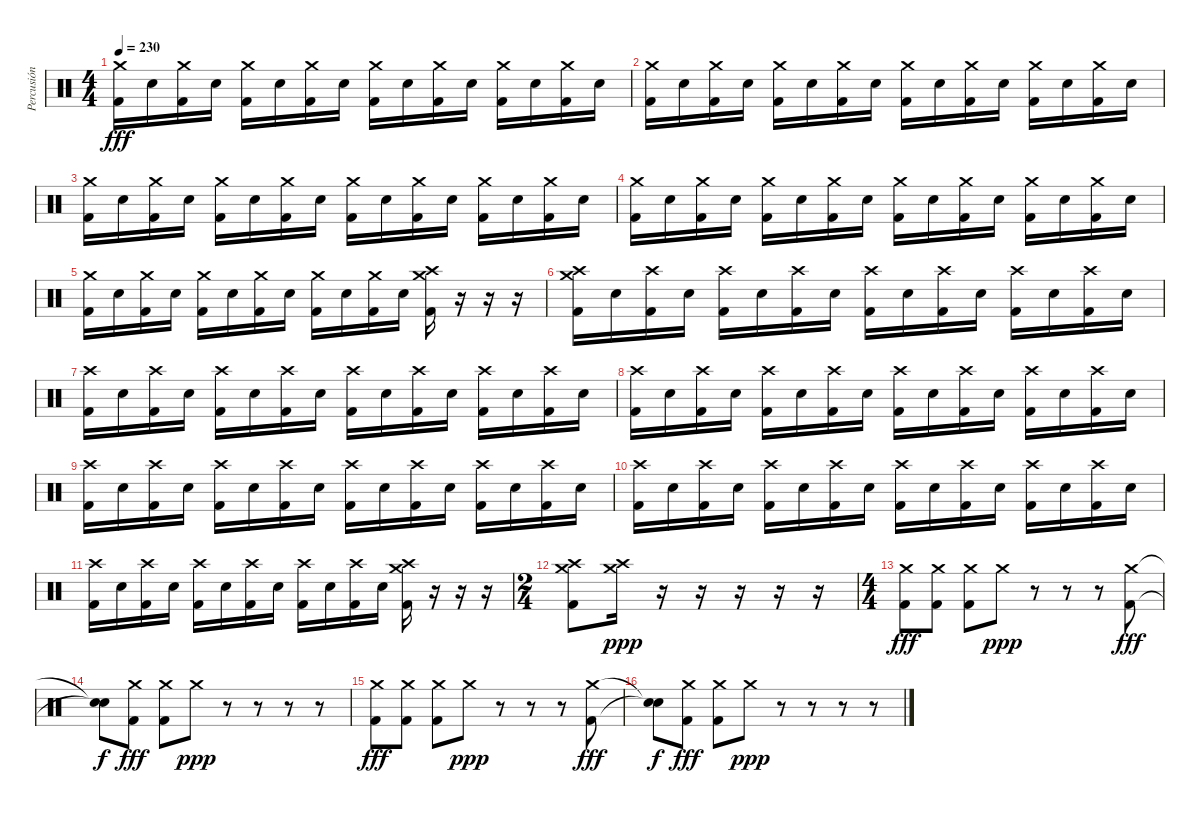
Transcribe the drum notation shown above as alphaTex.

\track ("Percusión" "Percusión") {instrument percussion}
\staff {score}
\articulation defaults
\ts (4 4)
\tempo 230
\clef neutral
\ks c
("Crash medium (hit)" "Kick (hit) 2").16{dy fff} "Electric Snare (hit)".16 ("Crash medium (hit)" "Kick (hit) 2").16 "Electric Snare (hit)".16 ("Crash medium (hit)" "Kick (hit) 2").16 "Electric Snare (hit)".16 ("Crash medium (hit)" "Kick (hit) 2").16 "Electric Snare (hit)".16 ("Crash medium (hit)" "Kick (hit) 2").16 "Electric Snare (hit)".16 ("Crash medium (hit)" "Kick (hit) 2").16 "Electric Snare (hit)".16 ("Crash medium (hit)" "Kick (hit) 2").16 "Electric Snare (hit)".16 ("Crash medium (hit)" "Kick (hit) 2").16 "Electric Snare (hit)".16 |
("Crash medium (hit)" "Kick (hit) 2").16 "Electric Snare (hit)".16 ("Crash medium (hit)" "Kick (hit) 2").16 "Electric Snare (hit)".16 ("Crash medium (hit)" "Kick (hit) 2").16 "Electric Snare (hit)".16 ("Crash medium (hit)" "Kick (hit) 2").16 "Electric Snare (hit)".16 ("Crash medium (hit)" "Kick (hit) 2").16 "Electric Snare (hit)".16 ("Crash medium (hit)" "Kick (hit) 2").16 "Electric Snare (hit)".16 ("Crash medium (hit)" "Kick (hit) 2").16 "Electric Snare (hit)".16 ("Crash medium (hit)" "Kick (hit) 2").16 "Electric Snare (hit)".16 |
("Crash medium (hit)" "Kick (hit) 2").16 "Electric Snare (hit)".16 ("Crash medium (hit)" "Kick (hit) 2").16 "Electric Snare (hit)".16 ("Crash medium (hit)" "Kick (hit) 2").16 "Electric Snare (hit)".16 ("Crash medium (hit)" "Kick (hit) 2").16 "Electric Snare (hit)".16 ("Crash medium (hit)" "Kick (hit) 2").16 "Electric Snare (hit)".16 ("Crash medium (hit)" "Kick (hit) 2").16 "Electric Snare (hit)".16 ("Crash medium (hit)" "Kick (hit) 2").16 "Electric Snare (hit)".16 ("Crash medium (hit)" "Kick (hit) 2").16 "Electric Snare (hit)".16 |
("Crash medium (hit)" "Kick (hit) 2").16 "Electric Snare (hit)".16 ("Crash medium (hit)" "Kick (hit) 2").16 "Electric Snare (hit)".16 ("Crash medium (hit)" "Kick (hit) 2").16 "Electric Snare (hit)".16 ("Crash medium (hit)" "Kick (hit) 2").16 "Electric Snare (hit)".16 ("Crash medium (hit)" "Kick (hit) 2").16 "Electric Snare (hit)".16 ("Crash medium (hit)" "Kick (hit) 2").16 "Electric Snare (hit)".16 ("Crash medium (hit)" "Kick (hit) 2").16 "Electric Snare (hit)".16 ("Crash medium (hit)" "Kick (hit) 2").16 "Electric Snare (hit)".16 |
("Crash medium (hit)" "Kick (hit) 2").16 "Electric Snare (hit)".16 ("Crash medium (hit)" "Kick (hit) 2").16 "Electric Snare (hit)".16 ("Crash medium (hit)" "Kick (hit) 2").16 "Electric Snare (hit)".16 ("Crash medium (hit)" "Kick (hit) 2").16 "Electric Snare (hit)".16 ("Crash medium (hit)" "Kick (hit) 2").16 "Electric Snare (hit)".16 ("Crash medium (hit)" "Kick (hit) 2").16 "Electric Snare (hit)".16 ("Crash medium (hit)" "Crash high (hit)" "Kick (hit) 2").16 r.16 r.16 r.16 |
("Crash medium (hit)" "Crash high (hit)" "Kick (hit) 2").16 "Electric Snare (hit)".16 ("Crash high (hit)" "Kick (hit) 2").16 "Electric Snare (hit)".16 ("Crash high (hit)" "Kick (hit) 2").16 "Electric Snare (hit)".16 ("Crash high (hit)" "Kick (hit) 2").16 "Electric Snare (hit)".16 ("Crash high (hit)" "Kick (hit) 2").16 "Electric Snare (hit)".16 ("Crash high (hit)" "Kick (hit) 2").16 "Electric Snare (hit)".16 ("Crash high (hit)" "Kick (hit) 2").16 "Electric Snare (hit)".16 ("Crash high (hit)" "Kick (hit) 2").16 "Electric Snare (hit)".16 |
("Crash high (hit)" "Kick (hit) 2").16 "Electric Snare (hit)".16 ("Crash high (hit)" "Kick (hit) 2").16 "Electric Snare (hit)".16 ("Crash high (hit)" "Kick (hit) 2").16 "Electric Snare (hit)".16 ("Crash high (hit)" "Kick (hit) 2").16 "Electric Snare (hit)".16 ("Crash high (hit)" "Kick (hit) 2").16 "Electric Snare (hit)".16 ("Crash high (hit)" "Kick (hit) 2").16 "Electric Snare (hit)".16 ("Crash high (hit)" "Kick (hit) 2").16 "Electric Snare (hit)".16 ("Crash high (hit)" "Kick (hit) 2").16 "Electric Snare (hit)".16 |
("Crash high (hit)" "Kick (hit) 2").16 "Electric Snare (hit)".16 ("Crash high (hit)" "Kick (hit) 2").16 "Electric Snare (hit)".16 ("Crash high (hit)" "Kick (hit) 2").16 "Electric Snare (hit)".16 ("Crash high (hit)" "Kick (hit) 2").16 "Electric Snare (hit)".16 ("Crash high (hit)" "Kick (hit) 2").16 "Electric Snare (hit)".16 ("Crash high (hit)" "Kick (hit) 2").16 "Electric Snare (hit)".16 ("Crash high (hit)" "Kick (hit) 2").16 "Electric Snare (hit)".16 ("Crash high (hit)" "Kick (hit) 2").16 "Electric Snare (hit)".16 |
("Crash high (hit)" "Kick (hit) 2").16 "Electric Snare (hit)".16 ("Crash high (hit)" "Kick (hit) 2").16 "Electric Snare (hit)".16 ("Crash high (hit)" "Kick (hit) 2").16 "Electric Snare (hit)".16 ("Crash high (hit)" "Kick (hit) 2").16 "Electric Snare (hit)".16 ("Crash high (hit)" "Kick (hit) 2").16 "Electric Snare (hit)".16 ("Crash high (hit)" "Kick (hit) 2").16 "Electric Snare (hit)".16 ("Crash high (hit)" "Kick (hit) 2").16 "Electric Snare (hit)".16 ("Crash high (hit)" "Kick (hit) 2").16 "Electric Snare (hit)".16 |
("Crash high (hit)" "Kick (hit) 2").16 "Electric Snare (hit)".16 ("Crash high (hit)" "Kick (hit) 2").16 "Electric Snare (hit)".16 ("Crash high (hit)" "Kick (hit) 2").16 "Electric Snare (hit)".16 ("Crash high (hit)" "Kick (hit) 2").16 "Electric Snare (hit)".16 ("Crash high (hit)" "Kick (hit) 2").16 "Electric Snare (hit)".16 ("Crash high (hit)" "Kick (hit) 2").16 "Electric Snare (hit)".16 ("Crash high (hit)" "Kick (hit) 2").16 "Electric Snare (hit)".16 ("Crash high (hit)" "Kick (hit) 2").16 "Electric Snare (hit)".16 |
("Crash high (hit)" "Kick (hit) 2").16 "Electric Snare (hit)".16 ("Crash high (hit)" "Kick (hit) 2").16 "Electric Snare (hit)".16 ("Crash high (hit)" "Kick (hit) 2").16 "Electric Snare (hit)".16 ("Crash high (hit)" "Kick (hit) 2").16 "Electric Snare (hit)".16 ("Crash high (hit)" "Kick (hit) 2").16 "Electric Snare (hit)".16 ("Crash high (hit)" "Kick (hit) 2").16 "Electric Snare (hit)".16 ("Crash medium (hit)" "Crash high (hit)" "Kick (hit) 2").16 r.16 r.16 r.16 |
\ts (2 4)
("Crash medium (hit)" "Crash high (hit)" "Kick (hit) 2").8 ("Crash medium (hit)" "Crash high (hit)").16{dy ppp} r.16 r.16 r.16 r.16 r.16 |
\ts (4 4)
("Crash medium (hit)" "Kick (hit) 2").8{dy fff} ("Crash medium (hit)" "Kick (hit) 2").8 ("Crash medium (hit)" "Kick (hit) 2").8 "Crash medium (hit)".8{dy ppp} r.8 r.8 r.8 ("Crash medium (hit)" "Kick (hit) 2").8{dy fff} |
("Snare (hit)"{t} "Snare (hit)"{t}).8{dy f} ("Crash medium (hit)" "Kick (hit) 2").8{dy fff} ("Crash medium (hit)" "Kick (hit) 2").8 "Crash medium (hit)".8{dy ppp} r.8 r.8 r.8 r.8 |
("Crash medium (hit)" "Kick (hit) 2").8{dy fff} ("Crash medium (hit)" "Kick (hit) 2").8 ("Crash medium (hit)" "Kick (hit) 2").8 "Crash medium (hit)".8{dy ppp} r.8 r.8 r.8 ("Crash medium (hit)" "Kick (hit) 2").8{dy fff} |
("Snare (hit)"{t} "Snare (hit)"{t}).8{dy f} ("Crash medium (hit)" "Kick (hit) 2").8{dy fff} ("Crash medium (hit)" "Kick (hit) 2").8 "Crash medium (hit)".8{dy ppp} r.8 r.8 r.8 r.8
